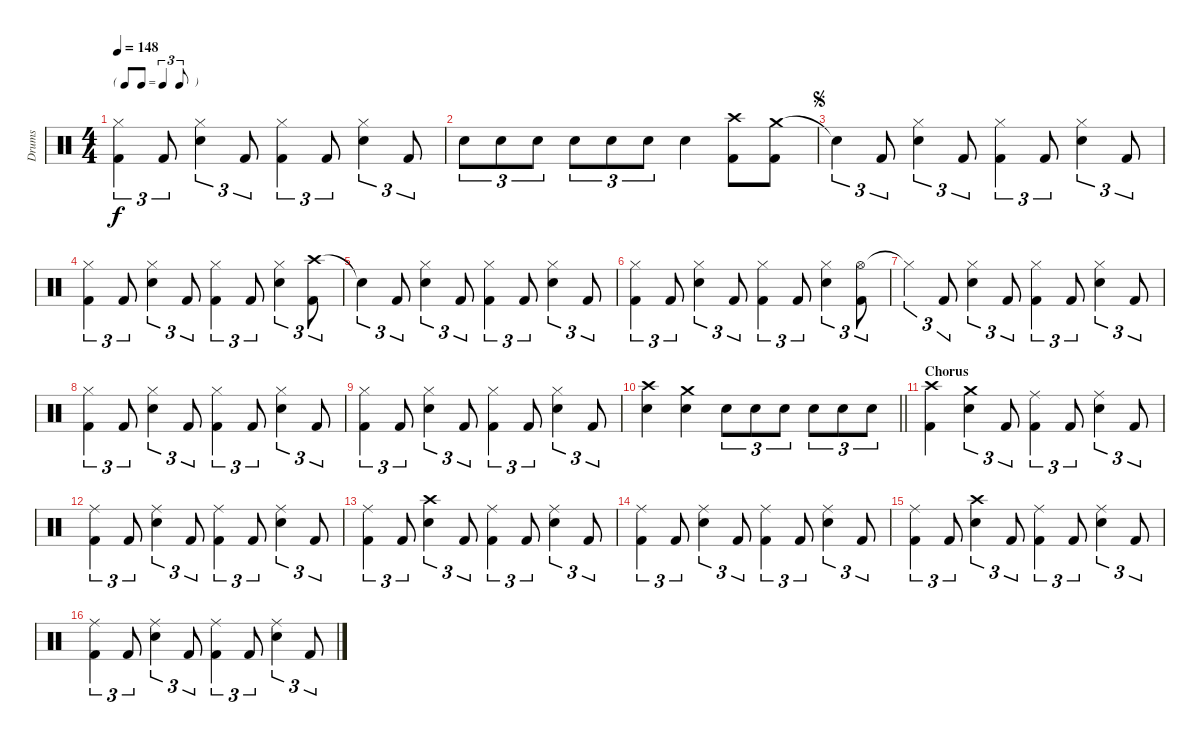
\track ("Drums" "Drums") {instrument percussion}
\staff {score}
\articulation defaults
\ts (4 4)
\tf triplet8th
\tempo 148
\clef neutral
\ks c
("Hi-Hat (closed)" "Kick (hit) 2").4{tu (3 2) dy f} "Kick (hit) 2".8{tu (3 2)} ("Hi-Hat (closed)" "Snare (hit) 2").4{tu (3 2)} "Kick (hit) 2".8{tu (3 2)} ("Hi-Hat (closed)" "Kick (hit) 2").4{tu (3 2)} "Kick (hit) 2".8{tu (3 2)} ("Hi-Hat (closed)" "Snare (hit) 2").4{tu (3 2)} "Kick (hit) 2".8{tu (3 2)} |
"Snare (hit) 2".8{tu (3 2)} "Snare (hit) 2".8{tu (3 2)} "Snare (hit) 2".8{tu (3 2)} "Snare (hit) 2".8{tu (3 2)} "Snare (hit) 2".8{tu (3 2)} "Snare (hit) 2".8{tu (3 2)} "Snare (hit) 2".4 ("Crash high (hit)" "Kick (hit) 2").8 ("Crash medium (hit)" "Kick (hit) 2").8 |
\jump segno "Snare (hit)"{t}.4{tu (3 2)} "Kick (hit) 2".8{tu (3 2)}
("Hi-Hat (closed)" "Snare (hit) 2").4{tu (3 2)} "Kick (hit) 2".8{tu (3 2)} ("Hi-Hat (closed)" "Kick (hit) 2").4{tu (3 2)} "Kick (hit) 2".8{tu (3 2)} ("Hi-Hat (closed)" "Snare (hit) 2").4{tu (3 2)} "Kick (hit) 2".8{tu (3 2)} |
("Hi-Hat (closed)" "Kick (hit) 2").4{tu (3 2)} "Kick (hit) 2".8{tu (3 2)} ("Hi-Hat (closed)" "Snare (hit) 2").4{tu (3 2)} "Kick (hit) 2".8{tu (3 2)} ("Hi-Hat (closed)" "Kick (hit) 2").4{tu (3 2)} "Kick (hit) 2".8{tu (3 2)} ("Hi-Hat (closed)" "Snare (hit) 2").4{tu (3 2)} ("Crash high (hit)" "Kick (hit) 2").8{tu (3 2)} |
"Snare (hit)"{t}.4{tu (3 2)} "Kick (hit) 2".8{tu (3 2)} ("Hi-Hat (closed)" "Snare (hit) 2").4{tu (3 2)} "Kick (hit) 2".8{tu (3 2)} ("Hi-Hat (closed)" "Kick (hit) 2").4{tu (3 2)} "Kick (hit) 2".8{tu (3 2)} ("Hi-Hat (closed)" "Snare (hit) 2").4{tu (3 2)} "Kick (hit) 2".8{tu (3 2)} |
("Hi-Hat (closed)" "Kick (hit) 2").4{tu (3 2)} "Kick (hit) 2".8{tu (3 2)} ("Hi-Hat (closed)" "Snare (hit) 2").4{tu (3 2)} "Kick (hit) 2".8{tu (3 2)} ("Hi-Hat (closed)" "Kick (hit) 2").4{tu (3 2)} "Kick (hit) 2".8{tu (3 2)} ("Hi-Hat (closed)" "Snare (hit) 2").4{tu (3 2)} ("Hi-Hat (open)" "Kick (hit) 2").8{tu (3 2)} |
"Hi-Hat (closed)"{t}.4{tu (3 2)} "Kick (hit) 2".8{tu (3 2)} ("Hi-Hat (closed)" "Snare (hit) 2").4{tu (3 2)} "Kick (hit) 2".8{tu (3 2)} ("Hi-Hat (closed)" "Kick (hit) 2").4{tu (3 2)} "Kick (hit) 2".8{tu (3 2)} ("Hi-Hat (closed)" "Snare (hit) 2").4{tu (3 2)} "Kick (hit) 2".8{tu (3 2)} |
("Hi-Hat (closed)" "Kick (hit) 2").4{tu (3 2)} "Kick (hit) 2".8{tu (3 2)} ("Hi-Hat (closed)" "Snare (hit) 2").4{tu (3 2)} "Kick (hit) 2".8{tu (3 2)} ("Hi-Hat (closed)" "Kick (hit) 2").4{tu (3 2)} "Kick (hit) 2".8{tu (3 2)} ("Hi-Hat (closed)" "Snare (hit) 2").4{tu (3 2)} "Kick (hit) 2".8{tu (3 2)} |
("Hi-Hat (closed)" "Kick (hit) 2").4{tu (3 2)} "Kick (hit) 2".8{tu (3 2)} ("Hi-Hat (closed)" "Snare (hit) 2").4{tu (3 2)} "Kick (hit) 2".8{tu (3 2)} ("Hi-Hat (closed)" "Kick (hit) 2").4{tu (3 2)} "Kick (hit) 2".8{tu (3 2)} ("Hi-Hat (closed)" "Snare (hit) 2").4{tu (3 2)} "Kick (hit) 2".8{tu (3 2)} |
\barLineRight lightlight
("Crash high (hit)" "Snare (hit) 2").4 ("Crash medium (hit)" "Snare (hit) 2").4 "Snare (hit) 2".8{tu (3 2)} "Snare (hit) 2".8{tu (3 2)} "Snare (hit) 2".8{tu (3 2)} "Snare (hit) 2".8{tu (3 2)} "Snare (hit) 2".8{tu (3 2)} "Snare (hit) 2".8{tu (3 2)} |
\section ("" "Chorus")
("Crash high (hit)" "Kick (hit) 2").4 ("Crash medium (hit)" "Snare (hit) 2").4{tu (3 2)} "Kick (hit) 2".8{tu (3 2)} ("Ride (middle)" "Kick (hit) 2").4{tu (3 2)} "Kick (hit) 2".8{tu (3 2)} ("Ride (middle)" "Snare (hit) 2").4{tu (3 2)} "Kick (hit) 2".8{tu (3 2)} |
("Ride (middle)" "Kick (hit) 2").4{tu (3 2)} "Kick (hit) 2".8{tu (3 2)} ("Ride (middle)" "Snare (hit) 2").4{tu (3 2)} "Kick (hit) 2".8{tu (3 2)} ("Ride (middle)" "Kick (hit) 2").4{tu (3 2)} "Kick (hit) 2".8{tu (3 2)} ("Ride (middle)" "Snare (hit) 2").4{tu (3 2)} "Kick (hit) 2".8{tu (3 2)} |
("Ride (middle)" "Kick (hit) 2").4{tu (3 2)} "Kick (hit) 2".8{tu (3 2)} ("Crash high (hit)" "Snare (hit) 2").4{tu (3 2)} "Kick (hit) 2".8{tu (3 2)} ("Ride (middle)" "Kick (hit) 2").4{tu (3 2)} "Kick (hit) 2".8{tu (3 2)} ("Ride (middle)" "Snare (hit) 2").4{tu (3 2)} "Kick (hit) 2".8{tu (3 2)} |
("Ride (middle)" "Kick (hit) 2").4{tu (3 2)} "Kick (hit) 2".8{tu (3 2)} ("Ride (middle)" "Snare (hit) 2").4{tu (3 2)} "Kick (hit) 2".8{tu (3 2)} ("Ride (middle)" "Kick (hit) 2").4{tu (3 2)} "Kick (hit) 2".8{tu (3 2)} ("Ride (middle)" "Snare (hit) 2").4{tu (3 2)} "Kick (hit) 2".8{tu (3 2)} |
("Ride (middle)" "Kick (hit) 2").4{tu (3 2)} "Kick (hit) 2".8{tu (3 2)} ("Crash high (hit)" "Snare (hit) 2").4{tu (3 2)} "Kick (hit) 2".8{tu (3 2)} ("Ride (middle)" "Kick (hit) 2").4{tu (3 2)} "Kick (hit) 2".8{tu (3 2)} ("Ride (middle)" "Snare (hit) 2").4{tu (3 2)} "Kick (hit) 2".8{tu (3 2)} |
("Ride (middle)" "Kick (hit) 2").4{tu (3 2)} "Kick (hit) 2".8{tu (3 2)} ("Ride (middle)" "Snare (hit) 2").4{tu (3 2)} "Kick (hit) 2".8{tu (3 2)} ("Ride (middle)" "Kick (hit) 2").4{tu (3 2)} "Kick (hit) 2".8{tu (3 2)} ("Ride (middle)" "Snare (hit) 2").4{tu (3 2)} "Kick (hit) 2".8{tu (3 2)}
